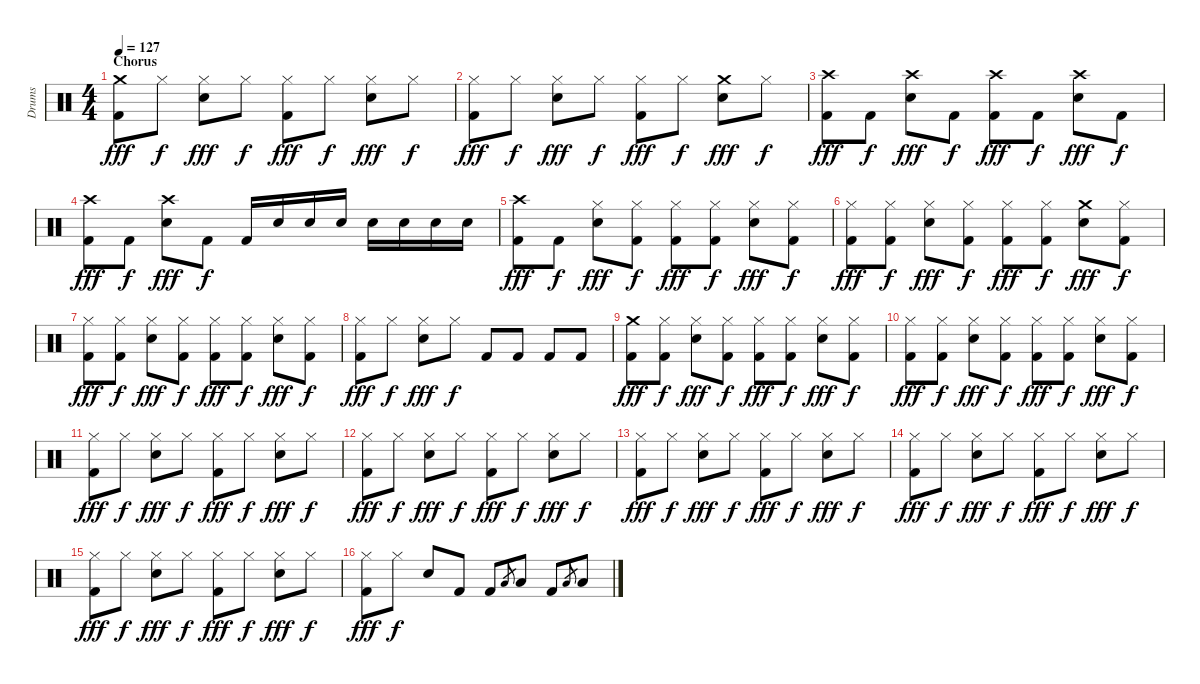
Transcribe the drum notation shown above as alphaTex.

\track ("Drums" "Drums") {instrument percussion}
\staff {score}
\articulation defaults
\ts (4 4)
\section ("" "Chorus")
\tempo 127
\clef neutral
\ks c
("Crash medium (hit)" "Kick (hit) 2").8{dy fff} "Hi-Hat (closed)".8{dy f} ("Hi-Hat (closed)" "Snare (hit) 2").8{dy fff} "Hi-Hat (closed)".8{dy f} ("Hi-Hat (closed)" "Kick (hit) 2").8{dy fff} "Hi-Hat (closed)".8{dy f} ("Hi-Hat (closed)" "Snare (hit) 2").8{dy fff} "Hi-Hat (closed)".8{dy f} |
("Hi-Hat (closed)" "Kick (hit) 2").8{dy fff} "Hi-Hat (closed)".8{dy f} ("Hi-Hat (closed)" "Snare (hit) 2").8{dy fff} "Hi-Hat (closed)".8{dy f} ("Hi-Hat (closed)" "Kick (hit) 2").8{dy fff} "Hi-Hat (closed)".8{dy f} ("Crash medium (hit)" "Snare (hit) 2").8{dy fff} "Hi-Hat (closed)".8{dy f} |
("Crash high (hit)" "Kick (hit) 2").8{dy fff} "Kick (hit) 2".8{dy f} ("Crash high (hit)" "Snare (hit) 2").8{dy fff} "Kick (hit) 2".8{dy f} ("Crash high (hit)" "Kick (hit) 2").8{dy fff} "Kick (hit) 2".8{dy f} ("Crash high (hit)" "Snare (hit) 2").8{dy fff} "Kick (hit) 2".8{dy f} |
("Crash high (hit)" "Kick (hit) 2").8{dy fff} "Kick (hit) 2".8{dy f} ("Crash high (hit)" "Snare (hit) 2").8{dy fff} "Kick (hit) 2".8{dy f} "Kick (hit) 2".16 "Snare (hit) 2".16 "Snare (hit) 2".16 "Snare (hit) 2".16 "Snare (hit) 2".16 "Snare (hit) 2".16 "Snare (hit) 2".16 "Snare (hit) 2".16 |
("Crash high (hit)" "Kick (hit) 2").8{dy fff} "Kick (hit) 2".8{dy f} ("Hi-Hat (closed)" "Snare (hit) 2").8{dy fff} ("Hi-Hat (closed)" "Kick (hit) 2").8{dy f} ("Hi-Hat (closed)" "Kick (hit) 2").8{dy fff} ("Hi-Hat (closed)" "Kick (hit) 2").8{dy f} ("Hi-Hat (closed)" "Snare (hit) 2").8{dy fff} ("Hi-Hat (closed)" "Kick (hit) 2").8{dy f} |
("Hi-Hat (closed)" "Kick (hit) 2").8{dy fff} ("Hi-Hat (closed)" "Kick (hit) 2").8{dy f} ("Hi-Hat (closed)" "Snare (hit) 2").8{dy fff} ("Hi-Hat (closed)" "Kick (hit) 2").8{dy f} ("Hi-Hat (closed)" "Kick (hit) 2").8{dy fff} ("Hi-Hat (closed)" "Kick (hit) 2").8{dy f} ("Crash medium (hit)" "Snare (hit) 2").8{dy fff} ("Hi-Hat (closed)" "Kick (hit) 2").8{dy f} |
("Hi-Hat (closed)" "Kick (hit) 2").8{dy fff} ("Hi-Hat (closed)" "Kick (hit) 2").8{dy f} ("Hi-Hat (closed)" "Snare (hit) 2").8{dy fff} ("Hi-Hat (closed)" "Kick (hit) 2").8{dy f} ("Hi-Hat (closed)" "Kick (hit) 2").8{dy fff} ("Hi-Hat (closed)" "Kick (hit) 2").8{dy f} ("Hi-Hat (closed)" "Snare (hit) 2").8{dy fff} ("Hi-Hat (closed)" "Kick (hit) 2").8{dy f} |
("Hi-Hat (closed)" "Kick (hit) 2").8{dy fff} "Hi-Hat (closed)".8{dy f} ("Hi-Hat (closed)" "Snare (hit) 2").8{dy fff} "Hi-Hat (closed)".8{dy f} "Kick (hit) 2".8 "Kick (hit) 2".8 "Kick (hit) 2".8 "Kick (hit) 2".8 |
("Crash medium (hit)" "Kick (hit) 2").8{dy fff} ("Hi-Hat (closed)" "Kick (hit) 2").8{dy f} ("Hi-Hat (closed)" "Snare (hit) 2").8{dy fff} ("Hi-Hat (closed)" "Kick (hit) 2").8{dy f} ("Hi-Hat (closed)" "Kick (hit) 2").8{dy fff} ("Hi-Hat (closed)" "Kick (hit) 2").8{dy f} ("Hi-Hat (closed)" "Snare (hit) 2").8{dy fff} ("Hi-Hat (closed)" "Kick (hit) 2").8{dy f} |
("Hi-Hat (closed)" "Kick (hit) 2").8{dy fff} ("Hi-Hat (closed)" "Kick (hit) 2").8{dy f} ("Hi-Hat (closed)" "Snare (hit) 2").8{dy fff} ("Hi-Hat (closed)" "Kick (hit) 2").8{dy f} ("Hi-Hat (closed)" "Kick (hit) 2").8{dy fff} ("Hi-Hat (closed)" "Kick (hit) 2").8{dy f} ("Hi-Hat (closed)" "Snare (hit) 2").8{dy fff} ("Hi-Hat (closed)" "Kick (hit) 2").8{dy f} |
("Hi-Hat (closed)" "Kick (hit) 2").8{dy fff} "Hi-Hat (closed)".8{dy f} ("Hi-Hat (closed)" "Snare (hit) 2").8{dy fff} "Hi-Hat (closed)".8{dy f} ("Hi-Hat (closed)" "Kick (hit) 2").8{dy fff} "Hi-Hat (closed)".8{dy f} ("Hi-Hat (closed)" "Snare (hit) 2").8{dy fff} "Hi-Hat (closed)".8{dy f} |
("Hi-Hat (closed)" "Kick (hit) 2").8{dy fff} "Hi-Hat (closed)".8{dy f} ("Hi-Hat (closed)" "Snare (hit) 2").8{dy fff} "Hi-Hat (closed)".8{dy f} ("Hi-Hat (closed)" "Kick (hit) 2").8{dy fff} "Hi-Hat (closed)".8{dy f} ("Hi-Hat (closed)" "Snare (hit) 2").8{dy fff} "Hi-Hat (closed)".8{dy f} |
("Hi-Hat (closed)" "Kick (hit) 2").8{dy fff} "Hi-Hat (closed)".8{dy f} ("Hi-Hat (closed)" "Snare (hit) 2").8{dy fff} "Hi-Hat (closed)".8{dy f} ("Hi-Hat (closed)" "Kick (hit) 2").8{dy fff} "Hi-Hat (closed)".8{dy f} ("Hi-Hat (closed)" "Snare (hit) 2").8{dy fff} "Hi-Hat (closed)".8{dy f} |
("Hi-Hat (closed)" "Kick (hit) 2").8{dy fff} "Hi-Hat (closed)".8{dy f} ("Hi-Hat (closed)" "Snare (hit) 2").8{dy fff} "Hi-Hat (closed)".8{dy f} ("Hi-Hat (closed)" "Kick (hit) 2").8{dy fff} "Hi-Hat (closed)".8{dy f} ("Hi-Hat (closed)" "Snare (hit) 2").8{dy fff} "Hi-Hat (closed)".8{dy f} |
("Hi-Hat (closed)" "Kick (hit) 2").8{dy fff} "Hi-Hat (closed)".8{dy f} ("Hi-Hat (closed)" "Snare (hit) 2").8{dy fff} "Hi-Hat (closed)".8{dy f} ("Hi-Hat (closed)" "Kick (hit) 2").8{dy fff} "Hi-Hat (closed)".8{dy f} ("Hi-Hat (closed)" "Snare (hit) 2").8{dy fff} "Hi-Hat (closed)".8{dy f} |
("Hi-Hat (closed)" "Kick (hit) 2").8{dy fff} "Hi-Hat (closed)".8{dy f} "Snare (hit) 2".8 "Kick (hit) 2".8 "Kick (hit) 2".8 "Low Tom (hit)".8{gr} "Low Tom (hit)".8 "Kick (hit) 2".8 "Low Floor Tom (hit)".8{gr} "Low Floor Tom (hit)".8
